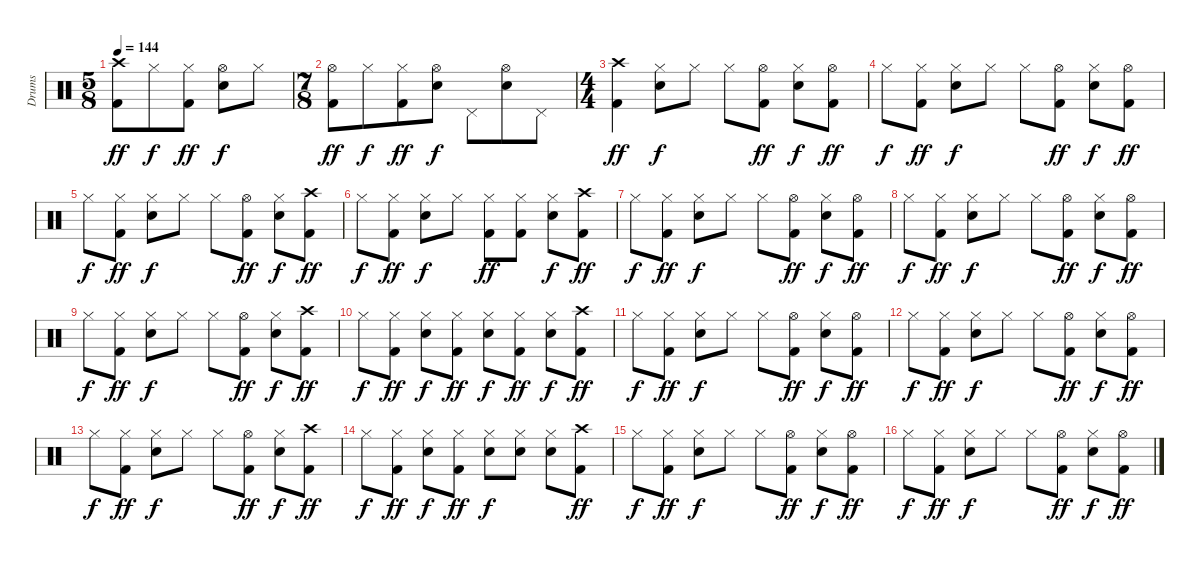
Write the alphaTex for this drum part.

\track ("Drums" "Drums") {instrument percussion}
\staff {score}
\articulation defaults
\ts (5 8)
\tempo 144
\clef neutral
\ks c
("Crash high (hit)" "Kick (hit) 2").8{dy ff} "Hi-Hat (closed)".8{dy f} ("Hi-Hat (closed)" "Kick (hit) 2").8{dy ff} ("Hi-Hat (open)" "Snare (hit) 2").8{dy f} "Hi-Hat (closed)".8 |
\ts (7 8)
("Hi-Hat (open)" "Kick (hit) 2").8{dy ff} "Hi-Hat (closed)".8{dy f} ("Hi-Hat (closed)" "Kick (hit) 2").8{dy ff} ("Hi-Hat (open)" "Snare (hit) 2").8{dy f} "Pedal Hi-Hat (hit)".8 ("Hi-Hat (open)" "Snare (hit) 2").8 "Pedal Hi-Hat (hit)".8 |
\ts (4 4)
("Crash high (hit)" "Kick (hit) 2").4{dy ff} ("Hi-Hat (closed)" "Snare (hit) 2").8{dy f} "Hi-Hat (closed)".8 "Hi-Hat (closed)".8 ("Hi-Hat (open)" "Kick (hit) 2").8{dy ff} ("Hi-Hat (closed)" "Snare (hit) 2").8{dy f} ("Hi-Hat (open)" "Kick (hit) 2").8{dy ff} |
"Hi-Hat (closed)".8{dy f} ("Hi-Hat (closed)" "Kick (hit) 2").8{dy ff} ("Hi-Hat (closed)" "Snare (hit) 2").8{dy f} "Hi-Hat (closed)".8 "Hi-Hat (closed)".8 ("Hi-Hat (open)" "Kick (hit) 2").8{dy ff} ("Hi-Hat (closed)" "Snare (hit) 2").8{dy f} ("Hi-Hat (open)" "Kick (hit) 2").8{dy ff} |
"Hi-Hat (closed)".8{dy f} ("Hi-Hat (closed)" "Kick (hit) 2").8{dy ff} ("Hi-Hat (closed)" "Snare (hit) 2").8{dy f} "Hi-Hat (closed)".8 "Hi-Hat (closed)".8 ("Hi-Hat (open)" "Kick (hit) 2").8{dy ff} ("Hi-Hat (closed)" "Snare (hit) 2").8{dy f} ("Crash high (hit)" "Kick (hit) 2").8{dy ff} |
"Hi-Hat (closed)".8{dy f} ("Hi-Hat (closed)" "Kick (hit) 2").8{dy ff} ("Hi-Hat (closed)" "Snare (hit) 2").8{dy f} "Hi-Hat (closed)".8 ("Hi-Hat (closed)" "Kick (hit) 2").8{dy ff} ("Hi-Hat (closed)" "Kick (hit) 2").8 ("Hi-Hat (closed)" "Snare (hit) 2").8{dy f} ("Crash high (hit)" "Kick (hit) 2").8{dy ff} |
"Hi-Hat (closed)".8{dy f} ("Hi-Hat (closed)" "Kick (hit) 2").8{dy ff} ("Hi-Hat (closed)" "Snare (hit) 2").8{dy f} "Hi-Hat (closed)".8 "Hi-Hat (closed)".8 ("Hi-Hat (open)" "Kick (hit) 2").8{dy ff} ("Hi-Hat (closed)" "Snare (hit) 2").8{dy f} ("Hi-Hat (open)" "Kick (hit) 2").8{dy ff} |
"Hi-Hat (closed)".8{dy f} ("Hi-Hat (closed)" "Kick (hit) 2").8{dy ff} ("Hi-Hat (closed)" "Snare (hit) 2").8{dy f} "Hi-Hat (closed)".8 "Hi-Hat (closed)".8 ("Hi-Hat (open)" "Kick (hit) 2").8{dy ff} ("Hi-Hat (closed)" "Snare (hit) 2").8{dy f} ("Hi-Hat (open)" "Kick (hit) 2").8{dy ff} |
"Hi-Hat (closed)".8{dy f} ("Hi-Hat (closed)" "Kick (hit) 2").8{dy ff} ("Hi-Hat (closed)" "Snare (hit) 2").8{dy f} "Hi-Hat (closed)".8 "Hi-Hat (closed)".8 ("Hi-Hat (open)" "Kick (hit) 2").8{dy ff} ("Hi-Hat (closed)" "Snare (hit) 2").8{dy f} ("Crash high (hit)" "Kick (hit) 2").8{dy ff} |
"Hi-Hat (closed)".8{dy f} ("Hi-Hat (closed)" "Kick (hit) 2").8{dy ff} ("Hi-Hat (closed)" "Snare (hit) 2").8{dy f} ("Hi-Hat (closed)" "Kick (hit) 2").8{dy ff} ("Hi-Hat (closed)" "Snare (hit) 2").8{dy f} ("Hi-Hat (closed)" "Kick (hit) 2").8{dy ff} ("Hi-Hat (closed)" "Snare (hit) 2").8{dy f} ("Crash high (hit)" "Kick (hit) 2").8{dy ff} |
"Hi-Hat (closed)".8{dy f} ("Hi-Hat (closed)" "Kick (hit) 2").8{dy ff} ("Hi-Hat (closed)" "Snare (hit) 2").8{dy f} "Hi-Hat (closed)".8 "Hi-Hat (closed)".8 ("Hi-Hat (open)" "Kick (hit) 2").8{dy ff} ("Hi-Hat (closed)" "Snare (hit) 2").8{dy f} ("Hi-Hat (open)" "Kick (hit) 2").8{dy ff} |
"Hi-Hat (closed)".8{dy f} ("Hi-Hat (closed)" "Kick (hit) 2").8{dy ff} ("Hi-Hat (closed)" "Snare (hit) 2").8{dy f} "Hi-Hat (closed)".8 "Hi-Hat (closed)".8 ("Hi-Hat (open)" "Kick (hit) 2").8{dy ff} ("Hi-Hat (closed)" "Snare (hit) 2").8{dy f} ("Hi-Hat (open)" "Kick (hit) 2").8{dy ff} |
"Hi-Hat (closed)".8{dy f} ("Hi-Hat (closed)" "Kick (hit) 2").8{dy ff} ("Hi-Hat (closed)" "Snare (hit) 2").8{dy f} "Hi-Hat (closed)".8 "Hi-Hat (closed)".8 ("Hi-Hat (open)" "Kick (hit) 2").8{dy ff} ("Hi-Hat (closed)" "Snare (hit) 2").8{dy f} ("Crash high (hit)" "Kick (hit) 2").8{dy ff} |
"Hi-Hat (closed)".8{dy f} ("Hi-Hat (closed)" "Kick (hit) 2").8{dy ff} ("Hi-Hat (closed)" "Snare (hit) 2").8{dy f} ("Hi-Hat (closed)" "Kick (hit) 2").8{dy ff} ("Hi-Hat (closed)" "Snare (hit) 2").8{dy f} ("Hi-Hat (closed)" "Snare (hit) 2").8 ("Hi-Hat (closed)" "Snare (hit) 2").8 ("Crash high (hit)" "Kick (hit) 2").8{dy ff} |
"Hi-Hat (closed)".8{dy f} ("Hi-Hat (closed)" "Kick (hit) 2").8{dy ff} ("Hi-Hat (closed)" "Snare (hit) 2").8{dy f} "Hi-Hat (closed)".8 "Hi-Hat (closed)".8 ("Hi-Hat (open)" "Kick (hit) 2").8{dy ff} ("Hi-Hat (closed)" "Snare (hit) 2").8{dy f} ("Hi-Hat (open)" "Kick (hit) 2").8{dy ff} |
"Hi-Hat (closed)".8{dy f} ("Hi-Hat (closed)" "Kick (hit) 2").8{dy ff} ("Hi-Hat (closed)" "Snare (hit) 2").8{dy f} "Hi-Hat (closed)".8 "Hi-Hat (closed)".8 ("Hi-Hat (open)" "Kick (hit) 2").8{dy ff} ("Hi-Hat (closed)" "Snare (hit) 2").8{dy f} ("Hi-Hat (open)" "Kick (hit) 2").8{dy ff}
